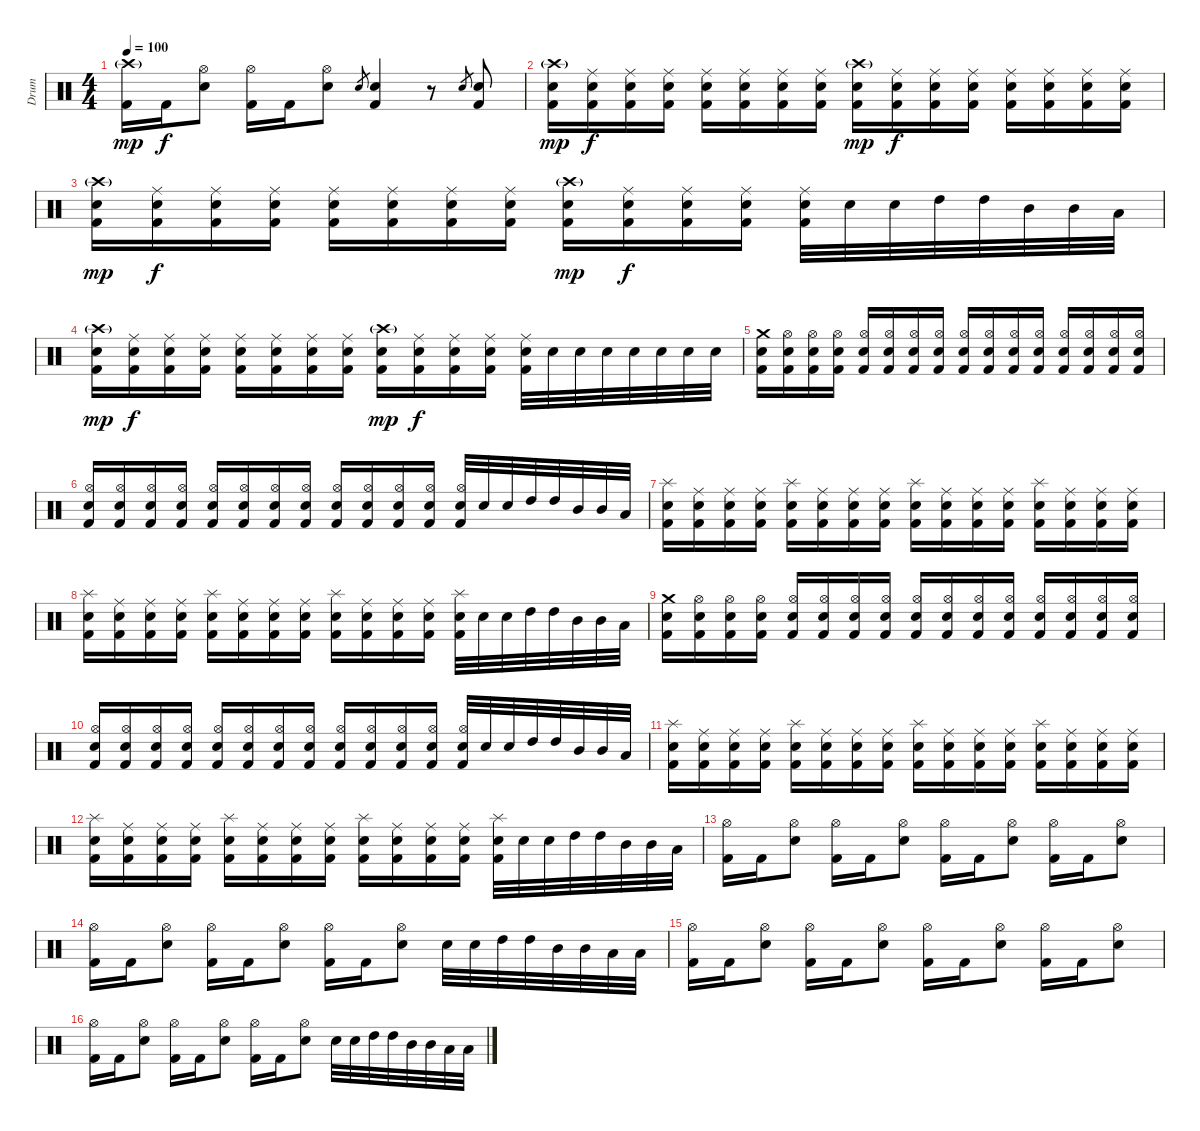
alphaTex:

\track ("Drum" "Drum") {instrument percussion}
\staff {score}
\articulation defaults
\ts (4 4)
\tempo 100
\clef neutral
\ks c
("Crash high (hit)"{g} "Kick (hit) 2").16{dy mp} "Kick (hit) 2".16{dy f} ("Hi-Hat (open)" "Electric Snare (hit)").8 ("Hi-Hat (open)" "Kick (hit) 2").16 "Kick (hit) 2".16 ("Hi-Hat (open)" "Electric Snare (hit)").8 "Electric Snare (hit)".8{gr} ("Electric Snare (hit)" "Kick (hit) 2").4 r.8 "Electric Snare (hit)".8{gr} ("Electric Snare (hit)" "Kick (hit) 2").8 |
("Crash high (hit)"{g} "Electric Snare (hit)" "Kick (hit) 2").16{dy mp} ("Ride (middle)" "Electric Snare (hit)" "Kick (hit) 2").16{dy f} ("Ride (middle)" "Electric Snare (hit)" "Kick (hit) 2").16 ("Ride (middle)" "Electric Snare (hit)" "Kick (hit) 2").16 ("Ride (middle)" "Electric Snare (hit)" "Kick (hit) 2").16 ("Ride (middle)" "Electric Snare (hit)" "Kick (hit) 2").16 ("Ride (middle)" "Electric Snare (hit)" "Kick (hit) 2").16 ("Ride (middle)" "Electric Snare (hit)" "Kick (hit) 2").16 ("Crash high (hit)"{g} "Electric Snare (hit)" "Kick (hit) 2").16{dy mp} ("Ride (middle)" "Electric Snare (hit)" "Kick (hit) 2").16{dy f} ("Ride (middle)" "Electric Snare (hit)" "Kick (hit) 2").16 ("Ride (middle)" "Electric Snare (hit)" "Kick (hit) 2").16 ("Ride (middle)" "Electric Snare (hit)" "Kick (hit) 2").16 ("Ride (middle)" "Electric Snare (hit)" "Kick (hit) 2").16 ("Ride (middle)" "Electric Snare (hit)" "Kick (hit) 2").16 ("Ride (middle)" "Electric Snare (hit)" "Kick (hit) 2").16 |
("Crash high (hit)"{g} "Electric Snare (hit)" "Kick (hit) 2").16{dy mp} ("Ride (middle)" "Electric Snare (hit)" "Kick (hit) 2").16{dy f} ("Ride (middle)" "Electric Snare (hit)" "Kick (hit) 2").16 ("Ride (middle)" "Electric Snare (hit)" "Kick (hit) 2").16 ("Ride (middle)" "Electric Snare (hit)" "Kick (hit) 2").16 ("Ride (middle)" "Electric Snare (hit)" "Kick (hit) 2").16 ("Ride (middle)" "Electric Snare (hit)" "Kick (hit) 2").16 ("Ride (middle)" "Electric Snare (hit)" "Kick (hit) 2").16 ("Crash high (hit)"{g} "Electric Snare (hit)" "Kick (hit) 2").16{dy mp} ("Ride (middle)" "Electric Snare (hit)" "Kick (hit) 2").16{dy f} ("Ride (middle)" "Electric Snare (hit)" "Kick (hit) 2").16 ("Ride (middle)" "Electric Snare (hit)" "Kick (hit) 2").16 ("Ride (middle)" "Electric Snare (hit)" "Kick (hit) 2").32 "Electric Snare (hit)".32 "Electric Snare (hit)".32 "High Tom (hit)".32 "High Tom (hit)".32 "Mid Tom (hit)".32 "Mid Tom (hit)".32 "Low Tom (hit)".32 |
("Crash high (hit)"{g} "Electric Snare (hit)" "Kick (hit) 2").16{dy mp} ("Ride (middle)" "Electric Snare (hit)" "Kick (hit) 2").16{dy f} ("Ride (middle)" "Electric Snare (hit)" "Kick (hit) 2").16 ("Ride (middle)" "Electric Snare (hit)" "Kick (hit) 2").16 ("Ride (middle)" "Electric Snare (hit)" "Kick (hit) 2").16 ("Ride (middle)" "Electric Snare (hit)" "Kick (hit) 2").16 ("Ride (middle)" "Electric Snare (hit)" "Kick (hit) 2").16 ("Ride (middle)" "Electric Snare (hit)" "Kick (hit) 2").16 ("Crash high (hit)"{g} "Electric Snare (hit)" "Kick (hit) 2").16{dy mp} ("Ride (middle)" "Electric Snare (hit)" "Kick (hit) 2").16{dy f} ("Ride (middle)" "Electric Snare (hit)" "Kick (hit) 2").16 ("Ride (middle)" "Electric Snare (hit)" "Kick (hit) 2").16 ("Ride (middle)" "Electric Snare (hit)" "Kick (hit) 2").32 "Electric Snare (hit)".32 "Electric Snare (hit)".32 "Electric Snare (hit)".32 "Electric Snare (hit)".32 "Electric Snare (hit)".32 "Electric Snare (hit)".32 "Electric Snare (hit)".32 |
("Crash medium (hit)" "Electric Snare (hit)" "Kick (hit) 2").16 ("Hi-Hat (open)" "Electric Snare (hit)" "Kick (hit) 2").16 ("Hi-Hat (open)" "Electric Snare (hit)" "Kick (hit) 2").16 ("Hi-Hat (open)" "Electric Snare (hit)" "Kick (hit) 2").16 ("Hi-Hat (open)" "Electric Snare (hit)" "Kick (hit) 2").16 ("Hi-Hat (open)" "Electric Snare (hit)" "Kick (hit) 2").16 ("Hi-Hat (open)" "Electric Snare (hit)" "Kick (hit) 2").16 ("Hi-Hat (open)" "Electric Snare (hit)" "Kick (hit) 2").16 ("Hi-Hat (open)" "Electric Snare (hit)" "Kick (hit) 2").16 ("Hi-Hat (open)" "Electric Snare (hit)" "Kick (hit) 2").16 ("Hi-Hat (open)" "Electric Snare (hit)" "Kick (hit) 2").16 ("Hi-Hat (open)" "Electric Snare (hit)" "Kick (hit) 2").16 ("Hi-Hat (open)" "Electric Snare (hit)" "Kick (hit) 2").16 ("Hi-Hat (open)" "Electric Snare (hit)" "Kick (hit) 2").16 ("Hi-Hat (open)" "Electric Snare (hit)" "Kick (hit) 2").16 ("Hi-Hat (open)" "Electric Snare (hit)" "Kick (hit) 2").16 |
("Hi-Hat (open)" "Electric Snare (hit)" "Kick (hit) 2").16 ("Hi-Hat (open)" "Electric Snare (hit)" "Kick (hit) 2").16 ("Hi-Hat (open)" "Electric Snare (hit)" "Kick (hit) 2").16 ("Hi-Hat (open)" "Electric Snare (hit)" "Kick (hit) 2").16 ("Hi-Hat (open)" "Electric Snare (hit)" "Kick (hit) 2").16 ("Hi-Hat (open)" "Electric Snare (hit)" "Kick (hit) 2").16 ("Hi-Hat (open)" "Electric Snare (hit)" "Kick (hit) 2").16 ("Hi-Hat (open)" "Electric Snare (hit)" "Kick (hit) 2").16 ("Hi-Hat (open)" "Electric Snare (hit)" "Kick (hit) 2").16 ("Hi-Hat (open)" "Electric Snare (hit)" "Kick (hit) 2").16 ("Hi-Hat (open)" "Electric Snare (hit)" "Kick (hit) 2").16 ("Hi-Hat (open)" "Electric Snare (hit)" "Kick (hit) 2").16 ("Hi-Hat (open)" "Electric Snare (hit)" "Kick (hit) 2").32 "Electric Snare (hit)".32 "Electric Snare (hit)".32 "High Tom (hit)".32 "High Tom (hit)".32 "Mid Tom (hit)".32 "Mid Tom (hit)".32 "Low Tom (hit)".32 |
("Splash (hit)" "Electric Snare (hit)" "Kick (hit) 2").16 ("Ride (middle)" "Electric Snare (hit)" "Kick (hit) 2").16 ("Ride (middle)" "Electric Snare (hit)" "Kick (hit) 2").16 ("Ride (middle)" "Electric Snare (hit)" "Kick (hit) 2").16 ("Splash (hit)" "Electric Snare (hit)" "Kick (hit) 2").16 ("Ride (middle)" "Electric Snare (hit)" "Kick (hit) 2").16 ("Ride (middle)" "Electric Snare (hit)" "Kick (hit) 2").16 ("Ride (middle)" "Electric Snare (hit)" "Kick (hit) 2").16 ("Splash (hit)" "Electric Snare (hit)" "Kick (hit) 2").16 ("Ride (middle)" "Electric Snare (hit)" "Kick (hit) 2").16 ("Ride (middle)" "Electric Snare (hit)" "Kick (hit) 2").16 ("Ride (middle)" "Electric Snare (hit)" "Kick (hit) 2").16 ("Splash (hit)" "Electric Snare (hit)" "Kick (hit) 2").16 ("Ride (middle)" "Electric Snare (hit)" "Kick (hit) 2").16 ("Ride (middle)" "Electric Snare (hit)" "Kick (hit) 2").16 ("Ride (middle)" "Electric Snare (hit)" "Kick (hit) 2").16 |
("Splash (hit)" "Electric Snare (hit)" "Kick (hit) 2").16 ("Ride (middle)" "Electric Snare (hit)" "Kick (hit) 2").16 ("Ride (middle)" "Electric Snare (hit)" "Kick (hit) 2").16 ("Ride (middle)" "Electric Snare (hit)" "Kick (hit) 2").16 ("Splash (hit)" "Electric Snare (hit)" "Kick (hit) 2").16 ("Ride (middle)" "Electric Snare (hit)" "Kick (hit) 2").16 ("Ride (middle)" "Electric Snare (hit)" "Kick (hit) 2").16 ("Ride (middle)" "Electric Snare (hit)" "Kick (hit) 2").16 ("Splash (hit)" "Electric Snare (hit)" "Kick (hit) 2").16 ("Ride (middle)" "Electric Snare (hit)" "Kick (hit) 2").16 ("Ride (middle)" "Electric Snare (hit)" "Kick (hit) 2").16 ("Ride (middle)" "Electric Snare (hit)" "Kick (hit) 2").16 ("Splash (hit)" "Electric Snare (hit)" "Kick (hit) 2").32 "Electric Snare (hit)".32 "Electric Snare (hit)".32 "High Tom (hit)".32 "High Tom (hit)".32 "Mid Tom (hit)".32 "Mid Tom (hit)".32 "Low Tom (hit)".32 |
("Crash medium (hit)" "Electric Snare (hit)" "Kick (hit) 2").16 ("Hi-Hat (open)" "Electric Snare (hit)" "Kick (hit) 2").16 ("Hi-Hat (open)" "Electric Snare (hit)" "Kick (hit) 2").16 ("Hi-Hat (open)" "Electric Snare (hit)" "Kick (hit) 2").16 ("Hi-Hat (open)" "Electric Snare (hit)" "Kick (hit) 2").16 ("Hi-Hat (open)" "Electric Snare (hit)" "Kick (hit) 2").16 ("Hi-Hat (open)" "Electric Snare (hit)" "Kick (hit) 2").16 ("Hi-Hat (open)" "Electric Snare (hit)" "Kick (hit) 2").16 ("Hi-Hat (open)" "Electric Snare (hit)" "Kick (hit) 2").16 ("Hi-Hat (open)" "Electric Snare (hit)" "Kick (hit) 2").16 ("Hi-Hat (open)" "Electric Snare (hit)" "Kick (hit) 2").16 ("Hi-Hat (open)" "Electric Snare (hit)" "Kick (hit) 2").16 ("Hi-Hat (open)" "Electric Snare (hit)" "Kick (hit) 2").16 ("Hi-Hat (open)" "Electric Snare (hit)" "Kick (hit) 2").16 ("Hi-Hat (open)" "Electric Snare (hit)" "Kick (hit) 2").16 ("Hi-Hat (open)" "Electric Snare (hit)" "Kick (hit) 2").16 |
("Hi-Hat (open)" "Electric Snare (hit)" "Kick (hit) 2").16 ("Hi-Hat (open)" "Electric Snare (hit)" "Kick (hit) 2").16 ("Hi-Hat (open)" "Electric Snare (hit)" "Kick (hit) 2").16 ("Hi-Hat (open)" "Electric Snare (hit)" "Kick (hit) 2").16 ("Hi-Hat (open)" "Electric Snare (hit)" "Kick (hit) 2").16 ("Hi-Hat (open)" "Electric Snare (hit)" "Kick (hit) 2").16 ("Hi-Hat (open)" "Electric Snare (hit)" "Kick (hit) 2").16 ("Hi-Hat (open)" "Electric Snare (hit)" "Kick (hit) 2").16 ("Hi-Hat (open)" "Electric Snare (hit)" "Kick (hit) 2").16 ("Hi-Hat (open)" "Electric Snare (hit)" "Kick (hit) 2").16 ("Hi-Hat (open)" "Electric Snare (hit)" "Kick (hit) 2").16 ("Hi-Hat (open)" "Electric Snare (hit)" "Kick (hit) 2").16 ("Hi-Hat (open)" "Electric Snare (hit)" "Kick (hit) 2").32 "Electric Snare (hit)".32 "Electric Snare (hit)".32 "High Tom (hit)".32 "High Tom (hit)".32 "Mid Tom (hit)".32 "Mid Tom (hit)".32 "Low Tom (hit)".32 |
("Splash (hit)" "Electric Snare (hit)" "Kick (hit) 2").16 ("Ride (middle)" "Electric Snare (hit)" "Kick (hit) 2").16 ("Ride (middle)" "Electric Snare (hit)" "Kick (hit) 2").16 ("Ride (middle)" "Electric Snare (hit)" "Kick (hit) 2").16 ("Splash (hit)" "Electric Snare (hit)" "Kick (hit) 2").16 ("Ride (middle)" "Electric Snare (hit)" "Kick (hit) 2").16 ("Ride (middle)" "Electric Snare (hit)" "Kick (hit) 2").16 ("Ride (middle)" "Electric Snare (hit)" "Kick (hit) 2").16 ("Splash (hit)" "Electric Snare (hit)" "Kick (hit) 2").16 ("Ride (middle)" "Electric Snare (hit)" "Kick (hit) 2").16 ("Ride (middle)" "Electric Snare (hit)" "Kick (hit) 2").16 ("Ride (middle)" "Electric Snare (hit)" "Kick (hit) 2").16 ("Splash (hit)" "Electric Snare (hit)" "Kick (hit) 2").16 ("Ride (middle)" "Electric Snare (hit)" "Kick (hit) 2").16 ("Ride (middle)" "Electric Snare (hit)" "Kick (hit) 2").16 ("Ride (middle)" "Electric Snare (hit)" "Kick (hit) 2").16 |
("Splash (hit)" "Electric Snare (hit)" "Kick (hit) 2").16 ("Ride (middle)" "Electric Snare (hit)" "Kick (hit) 2").16 ("Ride (middle)" "Electric Snare (hit)" "Kick (hit) 2").16 ("Ride (middle)" "Electric Snare (hit)" "Kick (hit) 2").16 ("Splash (hit)" "Electric Snare (hit)" "Kick (hit) 2").16 ("Ride (middle)" "Electric Snare (hit)" "Kick (hit) 2").16 ("Ride (middle)" "Electric Snare (hit)" "Kick (hit) 2").16 ("Ride (middle)" "Electric Snare (hit)" "Kick (hit) 2").16 ("Splash (hit)" "Electric Snare (hit)" "Kick (hit) 2").16 ("Ride (middle)" "Electric Snare (hit)" "Kick (hit) 2").16 ("Ride (middle)" "Electric Snare (hit)" "Kick (hit) 2").16 ("Ride (middle)" "Electric Snare (hit)" "Kick (hit) 2").16 ("Splash (hit)" "Electric Snare (hit)" "Kick (hit) 2").32 "Electric Snare (hit)".32 "Electric Snare (hit)".32 "High Tom (hit)".32 "High Tom (hit)".32 "Mid Tom (hit)".32 "Mid Tom (hit)".32 "Low Tom (hit)".32 |
("Hi-Hat (open)" "Kick (hit) 2").16 "Kick (hit) 2".16 ("Hi-Hat (open)" "Electric Snare (hit)").8 ("Hi-Hat (open)" "Kick (hit) 2").16 "Kick (hit) 2".16 ("Hi-Hat (open)" "Electric Snare (hit)").8 ("Hi-Hat (open)" "Kick (hit) 2").16 "Kick (hit) 2".16 ("Hi-Hat (open)" "Electric Snare (hit)").8 ("Hi-Hat (open)" "Kick (hit) 2").16 "Kick (hit) 2".16 ("Hi-Hat (open)" "Electric Snare (hit)").8 |
("Hi-Hat (open)" "Kick (hit) 2").16 "Kick (hit) 2".16 ("Hi-Hat (open)" "Electric Snare (hit)").8 ("Hi-Hat (open)" "Kick (hit) 2").16 "Kick (hit) 2".16 ("Hi-Hat (open)" "Electric Snare (hit)").8 ("Hi-Hat (open)" "Kick (hit) 2").16 "Kick (hit) 2".16 ("Hi-Hat (open)" "Electric Snare (hit)").8 "Electric Snare (hit)".32 "Electric Snare (hit)".32 "High Tom (hit)".32 "High Tom (hit)".32 "Mid Tom (hit)".32 "Mid Tom (hit)".32 "Low Tom (hit)".32 "Low Tom (hit)".32 |
("Hi-Hat (open)" "Kick (hit) 2").16 "Kick (hit) 2".16 ("Hi-Hat (open)" "Electric Snare (hit)").8 ("Hi-Hat (open)" "Kick (hit) 2").16 "Kick (hit) 2".16 ("Hi-Hat (open)" "Electric Snare (hit)").8 ("Hi-Hat (open)" "Kick (hit) 2").16 "Kick (hit) 2".16 ("Hi-Hat (open)" "Electric Snare (hit)").8 ("Hi-Hat (open)" "Kick (hit) 2").16 "Kick (hit) 2".16 ("Hi-Hat (open)" "Electric Snare (hit)").8 |
("Hi-Hat (open)" "Kick (hit) 2").16 "Kick (hit) 2".16 ("Hi-Hat (open)" "Electric Snare (hit)").8 ("Hi-Hat (open)" "Kick (hit) 2").16 "Kick (hit) 2".16 ("Hi-Hat (open)" "Electric Snare (hit)").8 ("Hi-Hat (open)" "Kick (hit) 2").16 "Kick (hit) 2".16 ("Hi-Hat (open)" "Electric Snare (hit)").8 "Electric Snare (hit)".32 "Electric Snare (hit)".32 "High Tom (hit)".32 "High Tom (hit)".32 "Mid Tom (hit)".32 "Mid Tom (hit)".32 "Low Tom (hit)".32 "Low Tom (hit)".32
